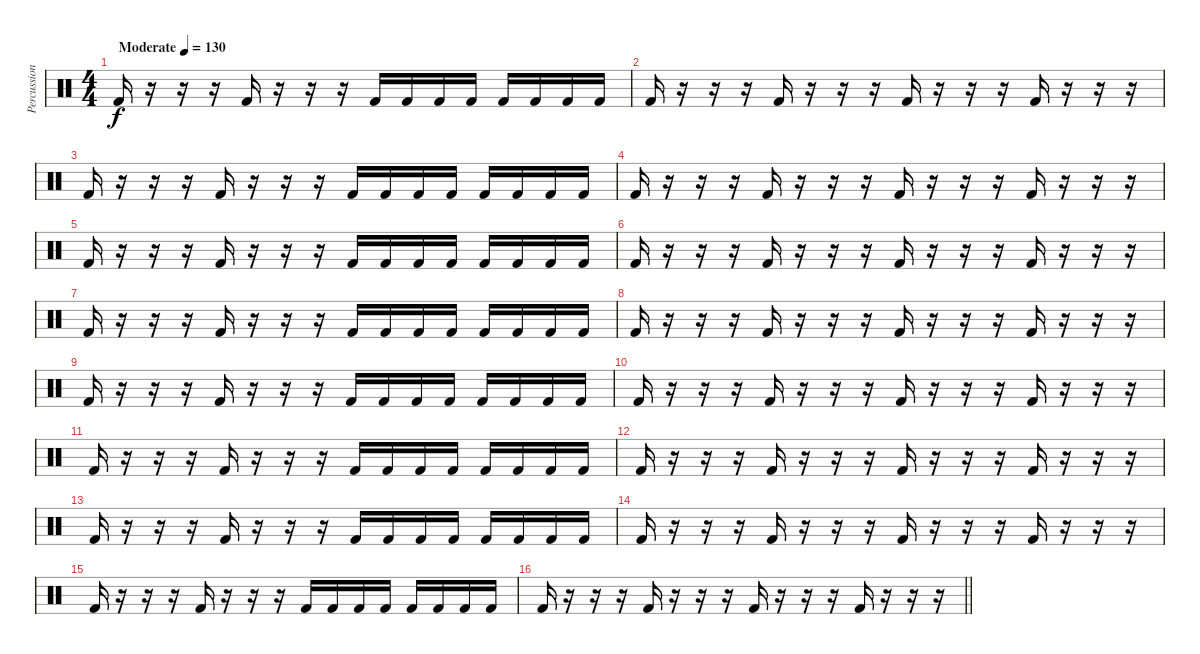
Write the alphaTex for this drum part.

\track ("Percussion" "Percussion") {instrument percussion}
\staff {score}
\articulation defaults
\ts (4 4)
\tempo (130 "Moderate")
\clef neutral
\ks c "Kick (hit) 2".16{dy f}
r.16 r.16 r.16 "Kick (hit) 2".16 r.16 r.16 r.16 "Kick (hit) 2".16 "Kick (hit) 2".16 "Kick (hit) 2".16 "Kick (hit) 2".16 "Kick (hit) 2".16 "Kick (hit) 2".16 "Kick (hit) 2".16 "Kick (hit) 2".16 |
"Kick (hit) 2".16 r.16 r.16 r.16 "Kick (hit) 2".16 r.16 r.16 r.16 "Kick (hit) 2".16 r.16 r.16 r.16 "Kick (hit) 2".16 r.16 r.16 r.16 |
"Kick (hit) 2".16 r.16 r.16 r.16 "Kick (hit) 2".16 r.16 r.16 r.16 "Kick (hit) 2".16 "Kick (hit) 2".16 "Kick (hit) 2".16 "Kick (hit) 2".16 "Kick (hit) 2".16 "Kick (hit) 2".16 "Kick (hit) 2".16 "Kick (hit) 2".16 |
"Kick (hit) 2".16 r.16 r.16 r.16 "Kick (hit) 2".16 r.16 r.16 r.16 "Kick (hit) 2".16 r.16 r.16 r.16 "Kick (hit) 2".16 r.16 r.16 r.16 |
"Kick (hit) 2".16 r.16 r.16 r.16 "Kick (hit) 2".16 r.16 r.16 r.16 "Kick (hit) 2".16 "Kick (hit) 2".16 "Kick (hit) 2".16 "Kick (hit) 2".16 "Kick (hit) 2".16 "Kick (hit) 2".16 "Kick (hit) 2".16 "Kick (hit) 2".16 |
"Kick (hit) 2".16 r.16 r.16 r.16 "Kick (hit) 2".16 r.16 r.16 r.16 "Kick (hit) 2".16 r.16 r.16 r.16 "Kick (hit) 2".16 r.16 r.16 r.16 |
"Kick (hit) 2".16 r.16 r.16 r.16 "Kick (hit) 2".16 r.16 r.16 r.16 "Kick (hit) 2".16 "Kick (hit) 2".16 "Kick (hit) 2".16 "Kick (hit) 2".16 "Kick (hit) 2".16 "Kick (hit) 2".16 "Kick (hit) 2".16 "Kick (hit) 2".16 |
"Kick (hit) 2".16 r.16 r.16 r.16 "Kick (hit) 2".16 r.16 r.16 r.16 "Kick (hit) 2".16 r.16 r.16 r.16 "Kick (hit) 2".16 r.16 r.16 r.16 |
"Kick (hit) 2".16 r.16 r.16 r.16 "Kick (hit) 2".16 r.16 r.16 r.16 "Kick (hit) 2".16 "Kick (hit) 2".16 "Kick (hit) 2".16 "Kick (hit) 2".16 "Kick (hit) 2".16 "Kick (hit) 2".16 "Kick (hit) 2".16 "Kick (hit) 2".16 |
"Kick (hit) 2".16 r.16 r.16 r.16 "Kick (hit) 2".16 r.16 r.16 r.16 "Kick (hit) 2".16 r.16 r.16 r.16 "Kick (hit) 2".16 r.16 r.16 r.16 |
"Kick (hit) 2".16 r.16 r.16 r.16 "Kick (hit) 2".16 r.16 r.16 r.16 "Kick (hit) 2".16 "Kick (hit) 2".16 "Kick (hit) 2".16 "Kick (hit) 2".16 "Kick (hit) 2".16 "Kick (hit) 2".16 "Kick (hit) 2".16 "Kick (hit) 2".16 |
"Kick (hit) 2".16 r.16 r.16 r.16 "Kick (hit) 2".16 r.16 r.16 r.16 "Kick (hit) 2".16 r.16 r.16 r.16 "Kick (hit) 2".16 r.16 r.16 r.16 |
"Kick (hit) 2".16 r.16 r.16 r.16 "Kick (hit) 2".16 r.16 r.16 r.16 "Kick (hit) 2".16 "Kick (hit) 2".16 "Kick (hit) 2".16 "Kick (hit) 2".16 "Kick (hit) 2".16 "Kick (hit) 2".16 "Kick (hit) 2".16 "Kick (hit) 2".16 |
"Kick (hit) 2".16 r.16 r.16 r.16 "Kick (hit) 2".16 r.16 r.16 r.16 "Kick (hit) 2".16 r.16 r.16 r.16 "Kick (hit) 2".16 r.16 r.16 r.16 |
"Kick (hit) 2".16 r.16 r.16 r.16 "Kick (hit) 2".16 r.16 r.16 r.16 "Kick (hit) 2".16 "Kick (hit) 2".16 "Kick (hit) 2".16 "Kick (hit) 2".16 "Kick (hit) 2".16 "Kick (hit) 2".16 "Kick (hit) 2".16 "Kick (hit) 2".16 |
\barLineRight lightlight "Kick (hit) 2".16
r.16 r.16 r.16 "Kick (hit) 2".16 r.16 r.16 r.16 "Kick (hit) 2".16 r.16 r.16 r.16 "Kick (hit) 2".16 r.16 r.16 r.16
